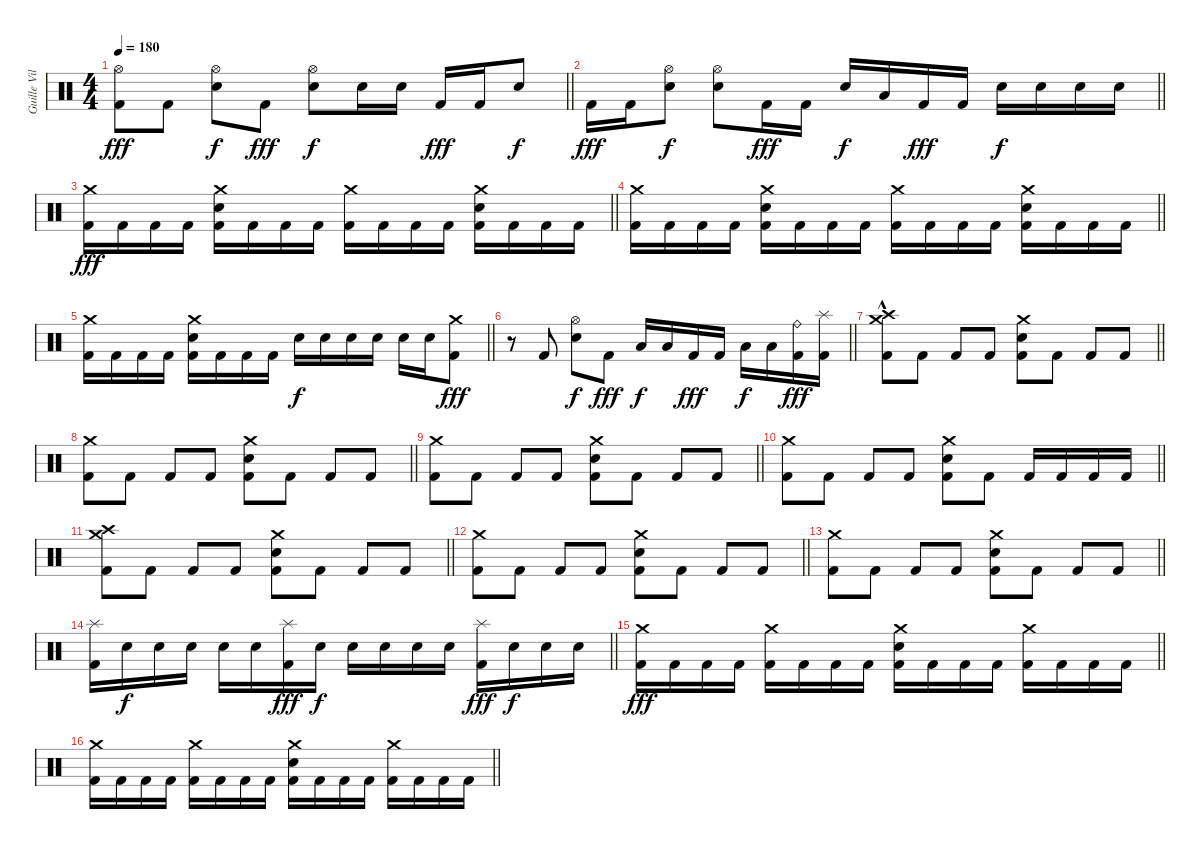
\track ("Guille Vila" "Guille Vil") {instrument percussion}
\staff {score}
\articulation defaults
\ts (4 4)
\tempo 180
\clef neutral
\barLineRight lightlight
\ks c
("Hi-Hat (open)" "Kick (hit) 2").8{dy fff} "Kick (hit) 2".8 ("Hi-Hat (open)" "Snare (hit) 2").8{dy f} "Kick (hit) 2".8{dy fff} ("Hi-Hat (open)" "Snare (hit) 2").8{dy f} "Snare (hit) 2".16 "Snare (hit) 2".16 "Kick (hit) 2".16{dy fff} "Kick (hit) 2".16 "Snare (hit) 2".8{dy f} |
\barLineRight lightlight "Kick (hit) 2".16{dy fff} "Kick (hit) 2".16
("Hi-Hat (open)" "Snare (hit) 2").8{dy f} ("Hi-Hat (open)" "Snare (hit) 2").8 "Kick (hit) 2".16{dy fff} "Kick (hit) 2".16 "Snare (hit) 2".16{dy f} "Low Tom (hit)".16 "Kick (hit) 2".16{dy fff} "Kick (hit) 2".16 "Snare (hit) 2".16{dy f} "Snare (hit) 2".16 "Snare (hit) 2".16 "Snare (hit) 2".16 |
\barLineRight lightlight
("Crash medium (hit)" "Kick (hit) 2").16{dy fff} "Kick (hit) 2".16 "Kick (hit) 2".16 "Kick (hit) 2".16 ("Crash medium (hit)" "Snare (hit) 2" "Kick (hit) 2").16 "Kick (hit) 2".16 "Kick (hit) 2".16 "Kick (hit) 2".16 ("Crash medium (hit)" "Kick (hit) 2").16 "Kick (hit) 2".16 "Kick (hit) 2".16 "Kick (hit) 2".16 ("Crash medium (hit)" "Snare (hit) 2" "Kick (hit) 2").16 "Kick (hit) 2".16 "Kick (hit) 2".16 "Kick (hit) 2".16 |
\barLineRight lightlight
("Crash medium (hit)" "Kick (hit) 2").16 "Kick (hit) 2".16 "Kick (hit) 2".16 "Kick (hit) 2".16 ("Crash medium (hit)" "Snare (hit) 2" "Kick (hit) 2").16 "Kick (hit) 2".16 "Kick (hit) 2".16 "Kick (hit) 2".16 ("Crash medium (hit)" "Kick (hit) 2").16 "Kick (hit) 2".16 "Kick (hit) 2".16 "Kick (hit) 2".16 ("Crash medium (hit)" "Snare (hit) 2" "Kick (hit) 2").16 "Kick (hit) 2".16 "Kick (hit) 2".16 "Kick (hit) 2".16 |
\barLineRight lightlight
("Crash medium (hit)" "Kick (hit) 2").16 "Kick (hit) 2".16 "Kick (hit) 2".16 "Kick (hit) 2".16 ("Crash medium (hit)" "Snare (hit) 2" "Kick (hit) 2").16 "Kick (hit) 2".16 "Kick (hit) 2".16 "Kick (hit) 2".16 "Snare (hit) 2".16{dy f} "Snare (hit) 2".16 "Snare (hit) 2".16 "Snare (hit) 2".16 "Snare (hit) 2".16 "Snare (hit) 2".16 ("Crash medium (hit)" "Kick (hit) 2").8{dy fff} |
\barLineRight lightlight
r.8 "Kick (hit) 2".8 ("Hi-Hat (open)" "Snare (hit) 2").8{dy f} "Kick (hit) 2".8{dy fff} "Low Tom (hit)".16{dy f} "Low Tom (hit)".16 "Kick (hit) 2".16{dy fff} "Kick (hit) 2".16 "Low Floor Tom (hit)".16{dy f} "Low Floor Tom (hit)".16 ("Ride (bell)" "Kick (hit) 2").16{dy fff} ("Splash (hit)" "Kick (hit) 2").16 |
\section ("" "")
\barLineRight lightlight
("Crash medium (hit)" "Crash high (hit)" "Kick (hit) 2"{hac}).8 "Kick (hit) 2".8 "Kick (hit) 2".8 "Kick (hit) 2".8 ("Crash medium (hit)" "Snare (hit) 2" "Kick (hit) 2").8 "Kick (hit) 2".8 "Kick (hit) 2".8 "Kick (hit) 2".8 |
\section ("" "")
\barLineRight lightlight
("Crash medium (hit)" "Kick (hit) 2").8 "Kick (hit) 2".8 "Kick (hit) 2".8 "Kick (hit) 2".8 ("Crash medium (hit)" "Snare (hit) 2" "Kick (hit) 2").8 "Kick (hit) 2".8 "Kick (hit) 2".8 "Kick (hit) 2".8 |
\barLineRight lightlight
("Crash medium (hit)" "Kick (hit) 2").8 "Kick (hit) 2".8 "Kick (hit) 2".8 "Kick (hit) 2".8 ("Crash medium (hit)" "Snare (hit) 2" "Kick (hit) 2").8 "Kick (hit) 2".8 "Kick (hit) 2".8 "Kick (hit) 2".8 |
\barLineRight lightlight
("Crash medium (hit)" "Kick (hit) 2").8 "Kick (hit) 2".8 "Kick (hit) 2".8 "Kick (hit) 2".8 ("Crash medium (hit)" "Snare (hit) 2" "Kick (hit) 2").8 "Kick (hit) 2".8 "Kick (hit) 2".16 "Kick (hit) 2".16 "Kick (hit) 2".16 "Kick (hit) 2".16 |
\barLineRight lightlight
("Crash medium (hit)" "Crash high (hit)" "Kick (hit) 2").8 "Kick (hit) 2".8 "Kick (hit) 2".8 "Kick (hit) 2".8 ("Crash medium (hit)" "Snare (hit) 2" "Kick (hit) 2").8 "Kick (hit) 2".8 "Kick (hit) 2".8 "Kick (hit) 2".8 |
\barLineRight lightlight
("Crash medium (hit)" "Kick (hit) 2").8 "Kick (hit) 2".8 "Kick (hit) 2".8 "Kick (hit) 2".8 ("Crash medium (hit)" "Snare (hit) 2" "Kick (hit) 2").8 "Kick (hit) 2".8 "Kick (hit) 2".8 "Kick (hit) 2".8 |
\barLineRight lightlight
("Crash medium (hit)" "Kick (hit) 2").8 "Kick (hit) 2".8 "Kick (hit) 2".8 "Kick (hit) 2".8 ("Crash medium (hit)" "Snare (hit) 2" "Kick (hit) 2").8 "Kick (hit) 2".8 "Kick (hit) 2".8 "Kick (hit) 2".8 |
\barLineRight lightlight
("Splash (hit)" "Kick (hit) 2").16 "Snare (hit) 2".16{dy f} "Snare (hit) 2".16 "Snare (hit) 2".16 "Snare (hit) 2".16 "Snare (hit) 2".16 ("Splash (hit)" "Kick (hit) 2").16{dy fff} "Snare (hit) 2".16{dy f} "Snare (hit) 2".16 "Snare (hit) 2".16 "Snare (hit) 2".16 "Snare (hit) 2".16 ("Splash (hit)" "Kick (hit) 2").16{dy fff} "Snare (hit) 2".16{dy f} "Snare (hit) 2".16 "Snare (hit) 2".16 |
\barLineRight lightlight
("Crash medium (hit)" "Kick (hit) 2").16{dy fff} "Kick (hit) 2".16 "Kick (hit) 2".16 "Kick (hit) 2".16 ("Crash medium (hit)" "Kick (hit) 2").16 "Kick (hit) 2".16 "Kick (hit) 2".16 "Kick (hit) 2".16 ("Crash medium (hit)" "Snare (hit) 2" "Kick (hit) 2").16 "Kick (hit) 2".16 "Kick (hit) 2".16 "Kick (hit) 2".16 ("Crash medium (hit)" "Kick (hit) 2").16 "Kick (hit) 2".16 "Kick (hit) 2".16 "Kick (hit) 2".16 |
\barLineRight lightlight
("Crash medium (hit)" "Kick (hit) 2").16 "Kick (hit) 2".16 "Kick (hit) 2".16 "Kick (hit) 2".16 ("Crash medium (hit)" "Kick (hit) 2").16 "Kick (hit) 2".16 "Kick (hit) 2".16 "Kick (hit) 2".16 ("Crash medium (hit)" "Snare (hit) 2" "Kick (hit) 2").16 "Kick (hit) 2".16 "Kick (hit) 2".16 "Kick (hit) 2".16 ("Crash medium (hit)" "Kick (hit) 2").16 "Kick (hit) 2".16 "Kick (hit) 2".16 "Kick (hit) 2".16
